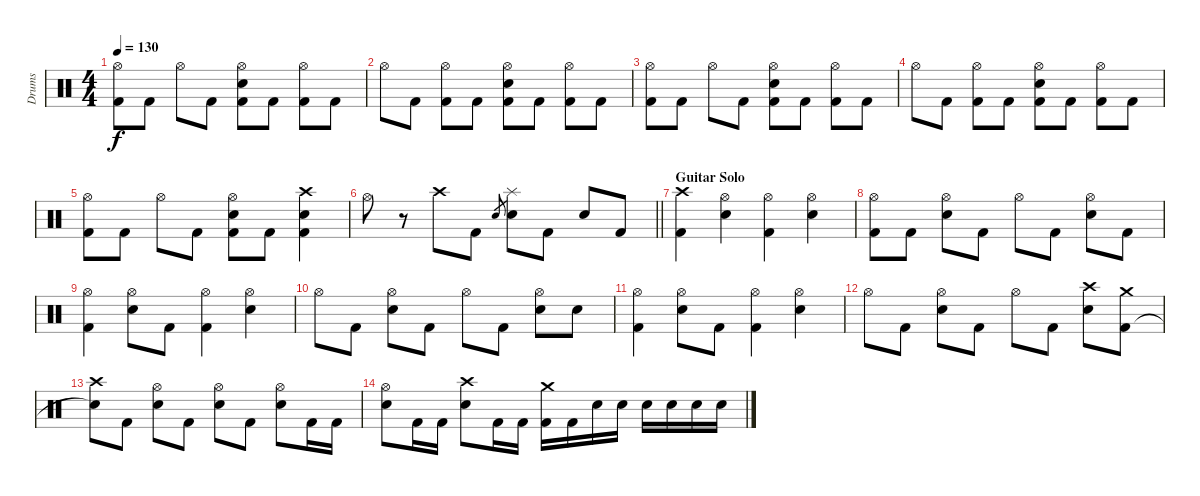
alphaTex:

\track ("Drums" "Drums") {instrument percussion}
\staff {score}
\articulation defaults
\ts (4 4)
\tempo 130
\clef neutral
\ks c
("Hi-Hat (open)" "Kick (hit) 2").8{dy f} "Kick (hit) 2".8 "Hi-Hat (open)".8 "Kick (hit) 2".8 ("Hi-Hat (open)" "Electric Snare (hit)" "Kick (hit) 2").8 "Kick (hit) 2".8 ("Hi-Hat (open)" "Kick (hit) 2").8 "Kick (hit) 2".8 |
"Hi-Hat (open)".8 "Kick (hit) 2".8 ("Hi-Hat (open)" "Kick (hit) 2").8 "Kick (hit) 2".8 ("Hi-Hat (open)" "Electric Snare (hit)" "Kick (hit) 2").8 "Kick (hit) 2".8 ("Hi-Hat (open)" "Kick (hit) 2").8 "Kick (hit) 2".8 |
("Hi-Hat (open)" "Kick (hit) 2").8 "Kick (hit) 2".8 "Hi-Hat (open)".8 "Kick (hit) 2".8 ("Hi-Hat (open)" "Electric Snare (hit)" "Kick (hit) 2").8 "Kick (hit) 2".8 ("Hi-Hat (open)" "Kick (hit) 2").8 "Kick (hit) 2".8 |
"Hi-Hat (open)".8 "Kick (hit) 2".8 ("Hi-Hat (open)" "Kick (hit) 2").8 "Kick (hit) 2".8 ("Hi-Hat (open)" "Electric Snare (hit)" "Kick (hit) 2").8 "Kick (hit) 2".8 ("Hi-Hat (open)" "Kick (hit) 2").8 "Kick (hit) 2".8 |
("Hi-Hat (open)" "Kick (hit) 2").8 "Kick (hit) 2".8 "Hi-Hat (open)".8 "Kick (hit) 2".8 ("Hi-Hat (open)" "Electric Snare (hit)" "Kick (hit) 2").8 "Kick (hit) 2".8 ("Crash high (hit)" "Electric Snare (hit)" "Kick (hit) 2").4 |
\barLineRight lightlight "Hi-Hat (open)".8
r.8 "Crash high (hit)".8 "Kick (hit) 2".8 "Electric Snare (hit)".8{gr} ("Splash (hit)" "Electric Snare (hit)").8 "Kick (hit) 2".8 "Electric Snare (hit)".8 "Kick (hit) 2".8 |
\section ("" "Guitar Solo")
("Crash high (hit)" "Kick (hit) 2").4 ("Hi-Hat (open)" "Electric Snare (hit)").4 ("Hi-Hat (open)" "Kick (hit) 2").4 ("Hi-Hat (open)" "Electric Snare (hit)").4 |
("Hi-Hat (open)" "Kick (hit) 2").8 "Kick (hit) 2".8 ("Hi-Hat (open)" "Electric Snare (hit)").8 "Kick (hit) 2".8 "Hi-Hat (open)".8 "Kick (hit) 2".8 ("Hi-Hat (open)" "Electric Snare (hit)").8 "Kick (hit) 2".8 |
("Hi-Hat (open)" "Kick (hit) 2").4 ("Hi-Hat (open)" "Electric Snare (hit)").8 "Kick (hit) 2".8 ("Hi-Hat (open)" "Kick (hit) 2").4 ("Hi-Hat (open)" "Electric Snare (hit)").4 |
"Hi-Hat (open)".8 "Kick (hit) 2".8 ("Hi-Hat (open)" "Electric Snare (hit)").8 "Kick (hit) 2".8 "Hi-Hat (open)".8 "Kick (hit) 2".8 ("Hi-Hat (open)" "Electric Snare (hit)").8 "Electric Snare (hit)".8 |
("Hi-Hat (open)" "Kick (hit) 2").4 ("Hi-Hat (open)" "Electric Snare (hit)").8 "Kick (hit) 2".8 ("Hi-Hat (open)" "Kick (hit) 2").4 ("Hi-Hat (open)" "Electric Snare (hit)").4 |
"Hi-Hat (open)".8 "Kick (hit) 2".8 ("Hi-Hat (open)" "Electric Snare (hit)").8 "Kick (hit) 2".8 "Hi-Hat (open)".8 "Kick (hit) 2".8 ("Crash high (hit)" "Electric Snare (hit)").8 ("Crash medium (hit)" "Kick (hit) 2").8 |
("Crash high (hit)" "Electric Snare (hit)"{t}).8 "Kick (hit) 2".8 ("Hi-Hat (open)" "Electric Snare (hit)").8 "Kick (hit) 2".8 ("Hi-Hat (open)" "Electric Snare (hit)").8 "Kick (hit) 2".8 ("Hi-Hat (open)" "Electric Snare (hit)").8 "Kick (hit) 2".16 "Kick (hit) 2".16 |
("Hi-Hat (open)" "Electric Snare (hit)").8 "Kick (hit) 2".16 "Kick (hit) 2".16 ("Crash high (hit)" "Electric Snare (hit)").8 "Kick (hit) 2".16 "Kick (hit) 2".16 ("Crash medium (hit)" "Kick (hit) 2").16 "Kick (hit) 2".16 "Electric Snare (hit)".16 "Electric Snare (hit)".16 "Electric Snare (hit)".16 "Electric Snare (hit)".16 "Electric Snare (hit)".16 "Electric Snare (hit)".16
